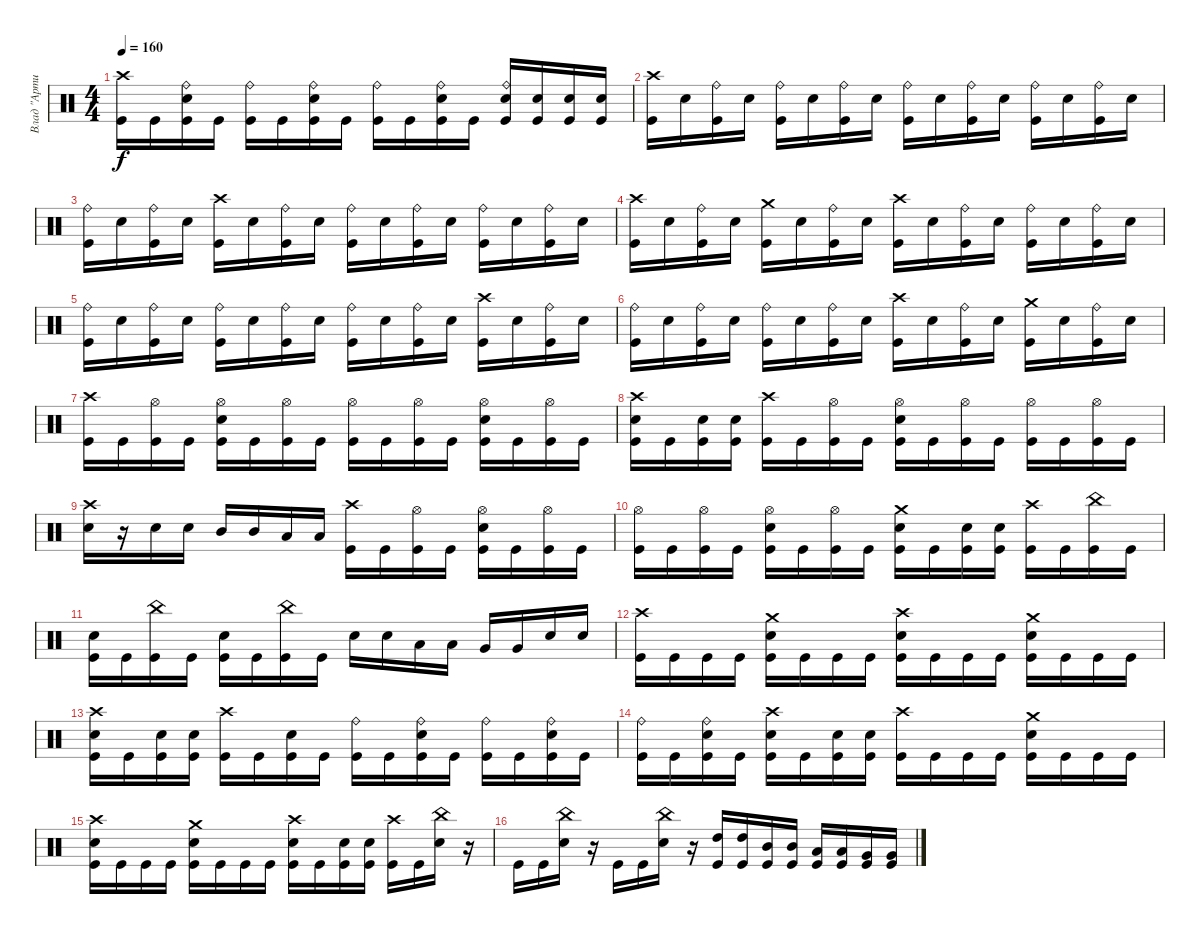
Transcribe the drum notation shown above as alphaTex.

\track ("Влад \"Артист\"" "Влад \"Арти") {instrument percussion}
\staff {score}
\articulation defaults
\ts (4 4)
\tempo 160
\clef neutral
\ks c
("Crash high (hit)" "Kick (hit)").16{dy f} "Kick (hit)".16 ("Kick (hit)" "Ride (bell)" "Snare (hit) 2").16 "Kick (hit)".16 ("Ride (bell)" "Kick (hit)").16 "Kick (hit)".16 ("Ride (bell)" "Kick (hit)" "Snare (hit) 2").16 "Kick (hit)".16 ("Ride (bell)" "Kick (hit)").16 "Kick (hit)".16 ("Kick (hit)" "Ride (bell)" "Snare (hit) 2").16 "Kick (hit)".16 ("Snare (hit) 2" "Ride (bell)" "Kick (hit)").16 ("Snare (hit) 2" "Kick (hit)").16 ("Snare (hit) 2" "Kick (hit)").16 ("Snare (hit) 2" "Kick (hit)").16 |
("Crash high (hit)" "Kick (hit)").16 "Snare (hit) 2".16 ("Kick (hit)" "Ride (bell)").16 "Snare (hit) 2".16 ("Kick (hit)" "Ride (bell)").16 "Snare (hit) 2".16 ("Kick (hit)" "Ride (bell)").16 "Snare (hit) 2".16 ("Ride (bell)" "Kick (hit)").16 "Snare (hit) 2".16 ("Kick (hit)" "Ride (bell)").16 "Snare (hit) 2".16 ("Kick (hit)" "Ride (bell)").16 "Snare (hit) 2".16 ("Kick (hit)" "Ride (bell)").16 "Snare (hit) 2".16 |
("Kick (hit)" "Ride (bell)").16 "Snare (hit) 2".16 ("Ride (bell)" "Kick (hit)").16 "Snare (hit) 2".16 ("Crash high (hit)" "Kick (hit)").16 "Snare (hit) 2".16 ("Kick (hit)" "Ride (bell)").16 "Snare (hit) 2".16 ("Kick (hit)" "Ride (bell)").16 "Snare (hit) 2".16 ("Kick (hit)" "Ride (bell)").16 "Snare (hit) 2".16 ("Ride (bell)" "Kick (hit)").16 "Snare (hit) 2".16 ("Kick (hit)" "Ride (bell)").16 "Snare (hit) 2".16 |
("Kick (hit)" "Crash high (hit)").16 "Snare (hit) 2".16 ("Kick (hit)" "Ride (bell)").16 "Snare (hit) 2".16 ("Kick (hit)" "Crash medium (hit)").16 "Snare (hit) 2".16 ("Ride (bell)" "Kick (hit)").16 "Snare (hit) 2".16 ("Crash high (hit)" "Kick (hit)").16 "Snare (hit) 2".16 ("Kick (hit)" "Ride (bell)").16 "Snare (hit) 2".16 ("Kick (hit)" "Ride (bell)").16 "Snare (hit) 2".16 ("Kick (hit)" "Ride (bell)").16 "Snare (hit) 2".16 |
("Ride (bell)" "Kick (hit)").16 "Snare (hit) 2".16 ("Kick (hit)" "Ride (bell)").16 "Snare (hit) 2".16 ("Kick (hit)" "Ride (bell)").16 "Snare (hit) 2".16 ("Kick (hit)" "Ride (bell)").16 "Snare (hit) 2".16 ("Kick (hit)" "Ride (bell)").16 "Snare (hit) 2".16 ("Ride (bell)" "Kick (hit)").16 "Snare (hit) 2".16 ("Crash high (hit)" "Kick (hit)").16 "Snare (hit) 2".16 ("Kick (hit)" "Ride (bell)").16 "Snare (hit) 2".16 |
("Kick (hit)" "Ride (bell)").16 "Snare (hit) 2".16 ("Kick (hit)" "Ride (bell)").16 "Snare (hit) 2".16 ("Ride (bell)" "Kick (hit)").16 "Snare (hit) 2".16 ("Kick (hit)" "Ride (bell)").16 "Snare (hit) 2".16 ("Kick (hit)" "Crash high (hit)").16 "Snare (hit) 2".16 ("Kick (hit)" "Ride (bell)").16 "Snare (hit) 2".16 ("Kick (hit)" "Crash medium (hit)").16 "Snare (hit) 2".16 ("Ride (bell)" "Kick (hit)").16 "Snare (hit) 2".16 |
("Kick (hit)" "Crash high (hit)").16 "Kick (hit)".16 ("Kick (hit)" "Hi-Hat (open)").16 "Kick (hit)".16 ("Snare (hit) 2" "Hi-Hat (open)" "Kick (hit)").16 "Kick (hit)".16 ("Kick (hit)" "Hi-Hat (open)").16 "Kick (hit)".16 ("Kick (hit)" "Hi-Hat (open)").16 "Kick (hit)".16 ("Kick (hit)" "Hi-Hat (open)").16 "Kick (hit)".16 ("Kick (hit)" "Snare (hit) 2" "Hi-Hat (open)").16 "Kick (hit)".16 ("Kick (hit)" "Hi-Hat (open)").16 "Kick (hit)".16 |
("Snare (hit) 2" "Kick (hit)" "Crash high (hit)").16 "Kick (hit)".16 ("Kick (hit)" "Snare (hit) 2").16 ("Snare (hit) 2" "Kick (hit)").16 ("Kick (hit)" "Crash high (hit)").16 "Kick (hit)".16 ("Kick (hit)" "Hi-Hat (open)").16 "Kick (hit)".16 ("Snare (hit) 2" "Hi-Hat (open)" "Kick (hit)").16 "Kick (hit)".16 ("Kick (hit)" "Hi-Hat (open)").16 "Kick (hit)".16 ("Kick (hit)" "Hi-Hat (open)").16 "Kick (hit)".16 ("Kick (hit)" "Hi-Hat (open)").16 "Kick (hit)".16 |
("Snare (hit) 2" "Crash high (hit)").16 r.16 "Snare (hit) 2".16 "Snare (hit) 2".16 "Mid Tom (hit)".16 "Mid Tom (hit)".16 "Low Tom (hit)".16 "Low Tom (hit)".16 ("Kick (hit)" "Crash high (hit)").16 "Kick (hit)".16 ("Kick (hit)" "Hi-Hat (open)").16 "Kick (hit)".16 ("Snare (hit) 2" "Hi-Hat (open)" "Kick (hit)").16 "Kick (hit)".16 ("Kick (hit)" "Hi-Hat (open)").16 "Kick (hit)".16 |
("Kick (hit)" "Hi-Hat (open)").16 "Kick (hit)".16 ("Kick (hit)" "Hi-Hat (open)").16 "Kick (hit)".16 ("Kick (hit)" "Snare (hit) 2" "Hi-Hat (open)").16 "Kick (hit)".16 ("Kick (hit)" "Hi-Hat (open)").16 "Kick (hit)".16 ("Snare (hit) 2" "Kick (hit)" "Crash medium (hit)").16 "Kick (hit)".16 ("Snare (hit) 2" "Kick (hit)").16 ("Snare (hit) 2" "Kick (hit)").16 ("Crash high (hit)" "Kick (hit)").16 "Kick (hit)".16 ("Kick (hit)" "China (hit)").16 "Kick (hit)".16 |
("Kick (hit)" "Snare (hit) 2").16 "Kick (hit)".16 ("Kick (hit)" "China (hit)").16 "Kick (hit)".16 ("Kick (hit)" "Snare (hit) 2").16 "Kick (hit)".16 ("Kick (hit)" "China (hit)").16 "Kick (hit)".16 "Snare (hit) 2".16 "Snare (hit) 2".16 "Low Tom (hit)".16 "Low Tom (hit)".16 "Very Low Tom (hit)".16 "Very Low Tom (hit)".16 "Snare (hit) 2".16 "Snare (hit) 2".16 |
("Kick (hit)" "Crash high (hit)").16 "Kick (hit)".16 "Kick (hit)".16 "Kick (hit)".16 ("Snare (hit) 2" "Crash medium (hit)" "Kick (hit)").16 "Kick (hit)".16 "Kick (hit)".16 "Kick (hit)".16 ("Snare (hit) 2" "Crash high (hit)" "Kick (hit)").16 "Kick (hit)".16 "Kick (hit)".16 "Kick (hit)".16 ("Snare (hit) 2" "Crash medium (hit)" "Kick (hit)").16 "Kick (hit)".16 "Kick (hit)".16 "Kick (hit)".16 |
("Kick (hit)" "Crash high (hit)" "Snare (hit) 2").16 "Kick (hit)".16 ("Kick (hit)" "Snare (hit) 2").16 ("Snare (hit) 2" "Kick (hit)").16 ("Kick (hit)" "Crash high (hit)").16 "Kick (hit)".16 ("Snare (hit) 2" "Kick (hit)").16 "Kick (hit)".16 ("Ride (bell)" "Kick (hit)").16 "Kick (hit)".16 ("Snare (hit) 2" "Ride (bell)" "Kick (hit)").16 "Kick (hit)".16 ("Ride (bell)" "Kick (hit)").16 "Kick (hit)".16 ("Ride (bell)" "Snare (hit) 2" "Kick (hit)").16 "Kick (hit)".16 |
("Ride (bell)" "Kick (hit)").16 "Kick (hit)".16 ("Snare (hit) 2" "Ride (bell)" "Kick (hit)").16 "Kick (hit)".16 ("Kick (hit)" "Snare (hit) 2" "Crash high (hit)").16 "Kick (hit)".16 ("Snare (hit) 2" "Kick (hit)").16 ("Snare (hit) 2" "Kick (hit)").16 ("Kick (hit)" "Crash high (hit)").16 "Kick (hit)".16 "Kick (hit)".16 "Kick (hit)".16 ("Snare (hit) 2" "Crash medium (hit)" "Kick (hit)").16 "Kick (hit)".16 "Kick (hit)".16 "Kick (hit)".16 |
("Snare (hit) 2" "Crash high (hit)" "Kick (hit)").16 "Kick (hit)".16 "Kick (hit)".16 "Kick (hit)".16 ("Snare (hit) 2" "Crash medium (hit)" "Kick (hit)").16 "Kick (hit)".16 "Kick (hit)".16 "Kick (hit)".16 ("Kick (hit)" "Snare (hit) 2" "Crash high (hit)").16 "Kick (hit)".16 ("Kick (hit)" "Snare (hit) 2").16 ("Kick (hit)" "Snare (hit) 2").16 ("Crash high (hit)" "Kick (hit)").16 "Kick (hit)".16 ("Snare (hit) 2" "China (hit)").16 r.16 |
"Kick (hit)".16 "Kick (hit)".16 ("Snare (hit) 2" "China (hit)").16 r.16 "Kick (hit)".16 "Kick (hit)".16 ("Snare (hit) 2" "China (hit)").16 r.16 ("Kick (hit)" "High Tom (hit)").16 ("Kick (hit)" "High Tom (hit)").16 ("Kick (hit)" "Mid Tom (hit)").16 ("Kick (hit)" "Mid Tom (hit)").16 ("Kick (hit)" "Low Tom (hit)").16 ("Kick (hit)" "Low Tom (hit)").16 ("Very Low Tom (hit)" "Kick (hit)").16 ("Kick (hit)" "Very Low Tom (hit)").16
